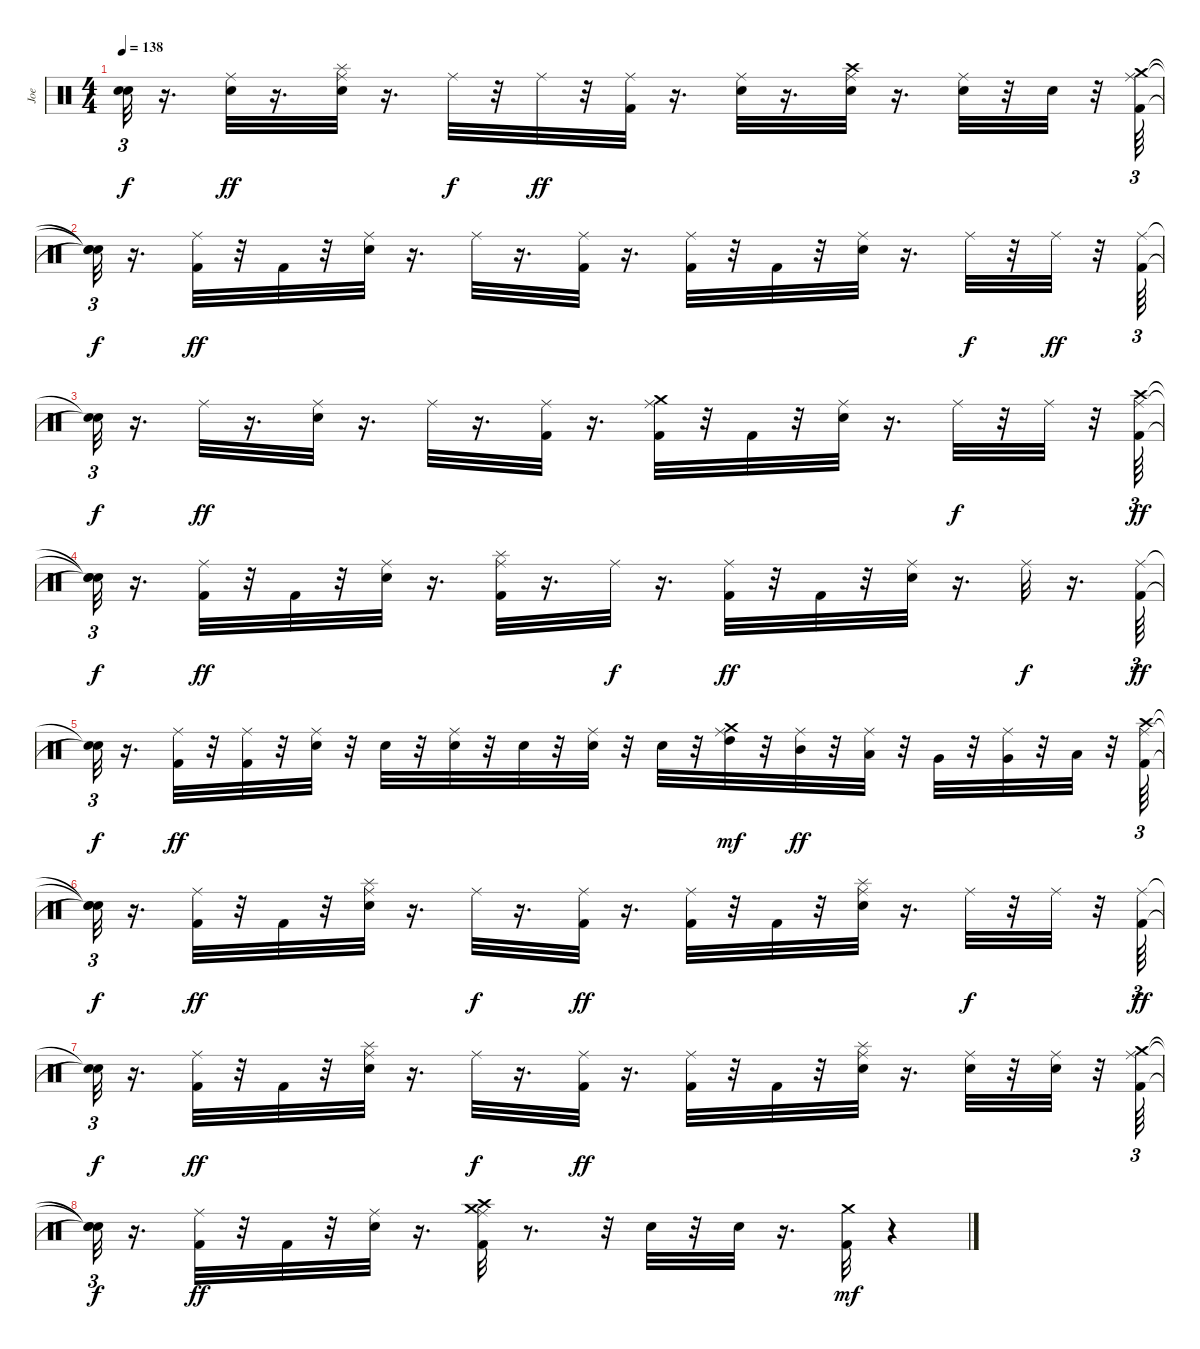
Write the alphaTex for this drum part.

\track ("Joe" "Joe") {instrument percussion}
\staff {score}
\articulation defaults
\ts (4 4)
\tempo 138
\clef neutral
\ks c
("Snare (hit)"{t} "Snare (hit)"{t}).32{tu (3 2) dy f} r.16{d} ("Electric Snare (hit)" "Ride (middle)").32{dy ff} r.16{d} ("Ride (middle)" "Electric Snare (hit)" "Splash (hit)").32 r.16{d} "Ride (middle)".32{dy f} r.32 "Ride (middle)".32{dy ff} r.32 ("Ride (middle)" "Kick (hit) 2").32 r.16{d} ("Ride (middle)" "Electric Snare (hit)").32 r.16{d} ("Ride (middle)" "Crash high (hit)" "Electric Snare (hit)").32 r.16{d} ("Electric Snare (hit)" "Ride (middle)").32 r.32 "Electric Snare (hit)".32 r.32 ("Kick (hit) 2" "Crash medium (hit)" "Ride (middle)").64{tu (3 2)} |
("Snare (hit)"{t} "Snare (hit)"{t} "Snare (hit)"{t}).32{tu (3 2) dy f} r.16{d} ("Ride (middle)" "Kick (hit) 2").32{dy ff} r.32 "Kick (hit) 2".32 r.32 ("Ride (middle)" "Electric Snare (hit)").32 r.16{d} "Ride (middle)".32 r.16{d} ("Kick (hit) 2" "Ride (middle)").32 r.16{d} ("Kick (hit) 2" "Ride (middle)").32 r.32 "Kick (hit) 2".32 r.32 ("Electric Snare (hit)" "Ride (middle)").32 r.16{d} "Ride (middle)".32{dy f} r.32 "Ride (middle)".32{dy ff} r.32 ("Ride (middle)" "Kick (hit) 2").64{tu (3 2)} |
("Snare (hit)"{t} "Snare (hit)"{t}).32{tu (3 2) dy f} r.16{d} "Ride (middle)".32{dy ff} r.16{d} ("Electric Snare (hit)" "Ride (middle)").32 r.16{d} "Ride (middle)".32 r.16{d} ("Kick (hit) 2" "Ride (middle)").32 r.16{d} ("Ride (middle)" "Crash medium (hit)" "Kick (hit) 2").32 r.32 "Kick (hit) 2".32 r.32 ("Electric Snare (hit)" "Ride (middle)").32 r.16{d} "Ride (middle)".32{dy f} r.32 "Ride (middle)".32 r.32 ("Ride (middle)" "Crash high (hit)" "Kick (hit) 2").64{tu (3 2) dy ff} |
("Snare (hit)"{t} "Snare (hit)"{t} "Snare (hit)"{t}).32{tu (3 2) dy f} r.16{d} ("Ride (middle)" "Kick (hit) 2").32{dy ff} r.32 "Kick (hit) 2".32 r.32 ("Electric Snare (hit)" "Ride (middle)").32 r.16{d} ("Ride (middle)" "Splash (hit)" "Kick (hit) 2").32 r.16{d} "Ride (middle)".32{dy f} r.16{d} ("Ride (middle)" "Kick (hit) 2").32{dy ff} r.32 "Kick (hit) 2".32 r.32 ("Electric Snare (hit)" "Ride (middle)").32 r.16{d} "Ride (middle)".32{dy f} r.16{d} ("Kick (hit) 2" "Ride (middle)").64{tu (3 2) dy ff} |
("Snare (hit)"{t} "Snare (hit)"{t}).32{tu (3 2) dy f} r.16{d} ("Kick (hit) 2" "Ride (middle)").32{dy ff} r.32 ("Ride (middle)" "Kick (hit) 2").32 r.32 ("Ride (middle)" "Electric Snare (hit)").32 r.32 "Electric Snare (hit)".32 r.32 ("Ride (middle)" "Electric Snare (hit)").32 r.32 "Electric Snare (hit)".32 r.32 ("Electric Snare (hit)" "Ride (middle)").32 r.32 "Electric Snare (hit)".32 r.32 ("High Tom (hit)" "Ride (middle)" "Crash medium (hit)").32{dy mf} r.32 ("Mid Tom (hit)" "Ride (middle)").32{dy ff} r.32 ("Low Tom (hit)" "Ride (middle)").32 r.32 "Very Low Tom (hit)".32 r.32 ("Very Low Tom (hit)" "Ride (middle)").32 r.32 "Low Floor Tom (hit)".32 r.32 ("Crash high (hit)" "Kick (hit) 2" "Ride (middle)").64{tu (3 2)} |
("Snare (hit)"{t} "Snare (hit)"{t} "Snare (hit)"{t}).32{tu (3 2) dy f} r.16{d} ("Ride (middle)" "Kick (hit) 2").32{dy ff} r.32 "Kick (hit) 2".32 r.32 ("Splash (hit)" "Electric Snare (hit)" "Ride (middle)").32 r.16{d} "Ride (middle)".32{dy f} r.16{d} ("Kick (hit) 2" "Ride (middle)").32{dy ff} r.16{d} ("Kick (hit) 2" "Ride (middle)").32 r.32 "Kick (hit) 2".32 r.32 ("Splash (hit)" "Electric Snare (hit)" "Ride (middle)").32 r.16{d} "Ride (middle)".32{dy f} r.32 "Ride (middle)".32 r.32 ("Kick (hit) 2" "Ride (middle)").64{tu (3 2) dy ff} |
("Snare (hit)"{t} "Snare (hit)"{t}).32{tu (3 2) dy f} r.16{d} ("Kick (hit) 2" "Ride (middle)").32{dy ff} r.32 "Kick (hit) 2".32 r.32 ("Splash (hit)" "Ride (middle)" "Electric Snare (hit)").32 r.16{d} "Ride (middle)".32{dy f} r.16{d} ("Ride (middle)" "Kick (hit) 2").32{dy ff} r.16{d} ("Ride (middle)" "Kick (hit) 2").32 r.32 "Kick (hit) 2".32 r.32 ("Ride (middle)" "Splash (hit)" "Electric Snare (hit)").32 r.16{d} ("Electric Snare (hit)" "Ride (middle)").32 r.32 ("Electric Snare (hit)" "Ride (middle)").32 r.32 ("Crash medium (hit)" "Kick (hit) 2" "Ride (middle)").64{tu (3 2)} |
("Snare (hit)"{t} "Snare (hit)"{t} "Snare (hit)"{t}).32{tu (3 2) dy f} r.16{d} ("Ride (middle)" "Kick (hit) 2").32{dy ff} r.32 "Kick (hit) 2".32 r.32 ("Electric Snare (hit)" "Ride (middle)").32 r.16{d} ("Ride (middle)" "Crash medium (hit)" "Crash high (hit)" "Kick (hit) 2").32 r.8{d} r.32 "Electric Snare (hit)".32 r.32 "Electric Snare (hit)".32 r.16{d} ("Kick (hit) 2" "Crash medium (hit)").32{dy mf} r.4{tu (3 2)}
